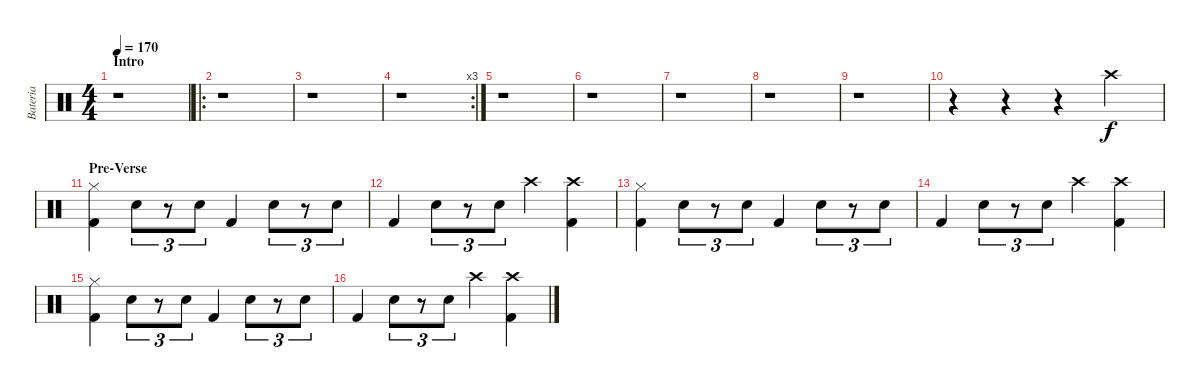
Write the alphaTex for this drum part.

\track ("Bateria" "Bateria") {instrument percussion}
\staff {score}
\articulation defaults
\ts (4 4)
\section ("" "Intro")
\tempo 170
\clef neutral
\ks c
r.1{dy f} |
\ro
r.1 |
r.1 |
\rc 3
r.1 |
r.1 |
r.1 |
r.1 |
r.1 |
r.1 |
r.4 r.4 r.4 "Crash high (hit)".4 |
\section ("" "Pre-Verse")
("Hi-Hat (closed)" "Kick (hit) 2").4 "Snare (hit) 2".8{tu (3 2)} r.8{tu (3 2)} "Snare (hit) 2".8{tu (3 2)} "Kick (hit) 2".4 "Snare (hit) 2".8{tu (3 2)} r.8{tu (3 2)} "Snare (hit) 2".8{tu (3 2)} |
"Kick (hit) 2".4 "Snare (hit) 2".8{tu (3 2)} r.8{tu (3 2)} "Snare (hit) 2".8{tu (3 2)} "Crash high (hit)".4 ("Crash high (hit)" "Kick (hit) 2").4 |
("Hi-Hat (closed)" "Kick (hit) 2").4 "Snare (hit) 2".8{tu (3 2)} r.8{tu (3 2)} "Snare (hit) 2".8{tu (3 2)} "Kick (hit) 2".4 "Snare (hit) 2".8{tu (3 2)} r.8{tu (3 2)} "Snare (hit) 2".8{tu (3 2)} |
"Kick (hit) 2".4 "Snare (hit) 2".8{tu (3 2)} r.8{tu (3 2)} "Snare (hit) 2".8{tu (3 2)} "Crash high (hit)".4 ("Crash high (hit)" "Kick (hit) 2").4 |
("Hi-Hat (closed)" "Kick (hit) 2").4 "Snare (hit) 2".8{tu (3 2)} r.8{tu (3 2)} "Snare (hit) 2".8{tu (3 2)} "Kick (hit) 2".4 "Snare (hit) 2".8{tu (3 2)} r.8{tu (3 2)} "Snare (hit) 2".8{tu (3 2)} |
"Kick (hit) 2".4 "Snare (hit) 2".8{tu (3 2)} r.8{tu (3 2)} "Snare (hit) 2".8{tu (3 2)} "Crash high (hit)".4 ("Crash high (hit)" "Kick (hit) 2").4
